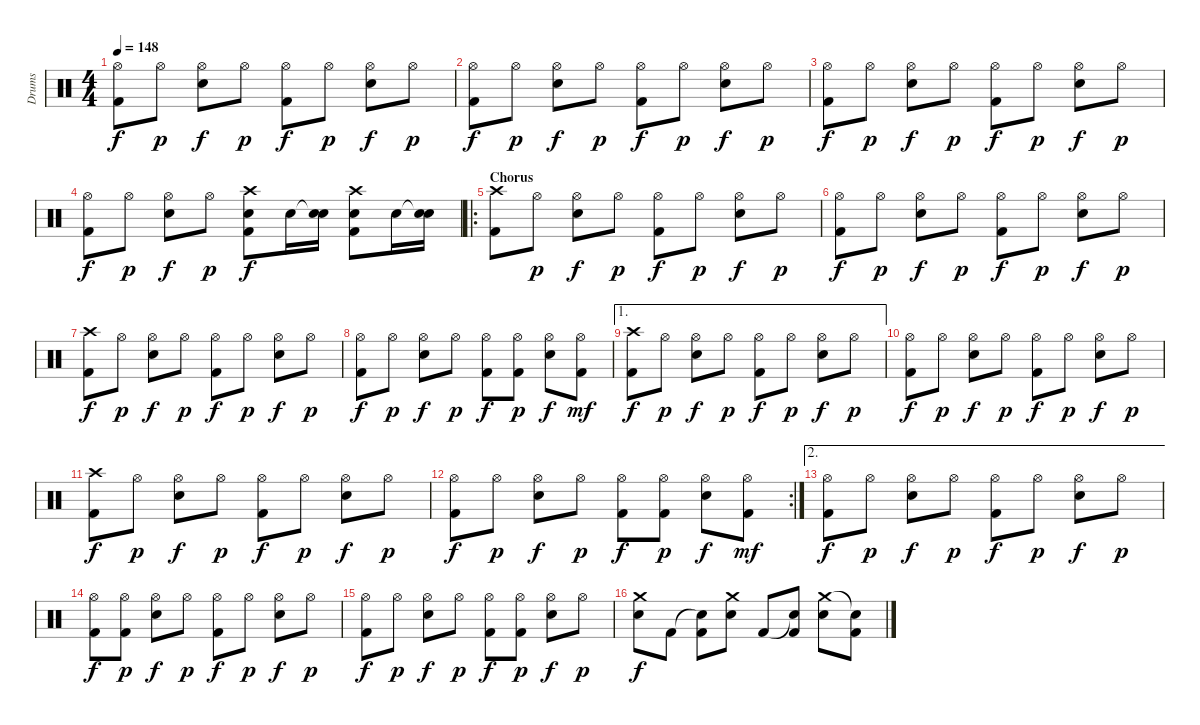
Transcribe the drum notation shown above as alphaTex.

\track ("Drums" "Drums") {instrument percussion}
\staff {score}
\articulation defaults
\ts (4 4)
\tempo 148
\clef neutral
\ks c
("Hi-Hat (open)" "Kick (hit) 2").8{dy f} "Hi-Hat (open)".8{dy p} ("Hi-Hat (open)" "Snare (hit) 2").8{dy f} "Hi-Hat (open)".8{dy p} ("Hi-Hat (open)" "Kick (hit) 2").8{dy f} "Hi-Hat (open)".8{dy p} ("Hi-Hat (open)" "Snare (hit) 2").8{dy f} "Hi-Hat (open)".8{dy p} |
("Hi-Hat (open)" "Kick (hit) 2").8{dy f} "Hi-Hat (open)".8{dy p} ("Hi-Hat (open)" "Snare (hit) 2").8{dy f} "Hi-Hat (open)".8{dy p} ("Hi-Hat (open)" "Kick (hit) 2").8{dy f} "Hi-Hat (open)".8{dy p} ("Hi-Hat (open)" "Snare (hit) 2").8{dy f} "Hi-Hat (open)".8{dy p} |
("Hi-Hat (open)" "Kick (hit) 2").8{dy f} "Hi-Hat (open)".8{dy p} ("Hi-Hat (open)" "Snare (hit) 2").8{dy f} "Hi-Hat (open)".8{dy p} ("Hi-Hat (open)" "Kick (hit) 2").8{dy f} "Hi-Hat (open)".8{dy p} ("Hi-Hat (open)" "Snare (hit) 2").8{dy f} "Hi-Hat (open)".8{dy p} |
("Hi-Hat (open)" "Kick (hit) 2").8{dy f} "Hi-Hat (open)".8{dy p} ("Hi-Hat (open)" "Snare (hit) 2").8{dy f} "Hi-Hat (open)".8{dy p} ("Crash high (hit)" "Snare (hit) 2" "Kick (hit) 2").8{dy f} "Snare (hit) 2".16 ("Snare (hit)"{t} "Snare (hit) 2").16 ("Crash high (hit)" "Snare (hit) 2" "Kick (hit) 2").8 "Snare (hit) 2".16 ("Snare (hit)"{t} "Snare (hit) 2").16 |
\ro
\section ("" "Chorus")
("Crash high (hit)" "Kick (hit) 2").8 "Hi-Hat (open)".8{dy p} ("Hi-Hat (open)" "Snare (hit) 2").8{dy f} "Hi-Hat (open)".8{dy p} ("Hi-Hat (open)" "Kick (hit) 2").8{dy f} "Hi-Hat (open)".8{dy p} ("Hi-Hat (open)" "Snare (hit) 2").8{dy f} "Hi-Hat (open)".8{dy p} |
("Hi-Hat (open)" "Kick (hit) 2").8{dy f} "Hi-Hat (open)".8{dy p} ("Hi-Hat (open)" "Snare (hit) 2").8{dy f} "Hi-Hat (open)".8{dy p} ("Hi-Hat (open)" "Kick (hit) 2").8{dy f} "Hi-Hat (open)".8{dy p} ("Hi-Hat (open)" "Snare (hit) 2").8{dy f} "Hi-Hat (open)".8{dy p} |
("Crash high (hit)" "Kick (hit) 2").8{dy f} "Hi-Hat (open)".8{dy p} ("Hi-Hat (open)" "Snare (hit) 2").8{dy f} "Hi-Hat (open)".8{dy p} ("Hi-Hat (open)" "Kick (hit) 2").8{dy f} "Hi-Hat (open)".8{dy p} ("Hi-Hat (open)" "Snare (hit) 2").8{dy f} "Hi-Hat (open)".8{dy p} |
("Hi-Hat (open)" "Kick (hit) 2").8{dy f} "Hi-Hat (open)".8{dy p} ("Hi-Hat (open)" "Snare (hit) 2").8{dy f} "Hi-Hat (open)".8{dy p} ("Hi-Hat (open)" "Kick (hit) 2").8{dy f} ("Hi-Hat (open)" "Kick (hit) 2").8{dy p} ("Hi-Hat (open)" "Snare (hit) 2").8{dy f} ("Hi-Hat (open)" "Kick (hit) 2").8{dy mf} |
\ae 1
("Crash high (hit)" "Kick (hit) 2").8{dy f} "Hi-Hat (open)".8{dy p} ("Hi-Hat (open)" "Snare (hit) 2").8{dy f} "Hi-Hat (open)".8{dy p} ("Hi-Hat (open)" "Kick (hit) 2").8{dy f} "Hi-Hat (open)".8{dy p} ("Hi-Hat (open)" "Snare (hit) 2").8{dy f} "Hi-Hat (open)".8{dy p} |
("Hi-Hat (open)" "Kick (hit) 2").8{dy f} "Hi-Hat (open)".8{dy p} ("Hi-Hat (open)" "Snare (hit) 2").8{dy f} "Hi-Hat (open)".8{dy p} ("Hi-Hat (open)" "Kick (hit) 2").8{dy f} "Hi-Hat (open)".8{dy p} ("Hi-Hat (open)" "Snare (hit) 2").8{dy f} "Hi-Hat (open)".8{dy p} |
("Crash high (hit)" "Kick (hit) 2").8{dy f} "Hi-Hat (open)".8{dy p} ("Hi-Hat (open)" "Snare (hit) 2").8{dy f} "Hi-Hat (open)".8{dy p} ("Hi-Hat (open)" "Kick (hit) 2").8{dy f} "Hi-Hat (open)".8{dy p} ("Hi-Hat (open)" "Snare (hit) 2").8{dy f} "Hi-Hat (open)".8{dy p} |
\rc 2
("Hi-Hat (open)" "Kick (hit) 2").8{dy f} "Hi-Hat (open)".8{dy p} ("Hi-Hat (open)" "Snare (hit) 2").8{dy f} "Hi-Hat (open)".8{dy p} ("Hi-Hat (open)" "Kick (hit) 2").8{dy f} ("Hi-Hat (open)" "Kick (hit) 2").8{dy p} ("Hi-Hat (open)" "Snare (hit) 2").8{dy f} ("Hi-Hat (open)" "Kick (hit) 2").8{dy mf} |
\ae 2
("Hi-Hat (open)" "Kick (hit) 2").8{dy f} "Hi-Hat (open)".8{dy p} ("Hi-Hat (open)" "Snare (hit) 2").8{dy f} "Hi-Hat (open)".8{dy p} ("Hi-Hat (open)" "Kick (hit) 2").8{dy f} "Hi-Hat (open)".8{dy p} ("Hi-Hat (open)" "Snare (hit) 2").8{dy f} "Hi-Hat (open)".8{dy p} |
("Hi-Hat (open)" "Kick (hit) 2").8{dy f} ("Hi-Hat (open)" "Kick (hit) 2").8{dy p} ("Hi-Hat (open)" "Snare (hit) 2").8{dy f} "Hi-Hat (open)".8{dy p} ("Hi-Hat (open)" "Kick (hit) 2").8{dy f} "Hi-Hat (open)".8{dy p} ("Hi-Hat (open)" "Snare (hit) 2").8{dy f} "Hi-Hat (open)".8{dy p} |
("Hi-Hat (open)" "Kick (hit) 2").8{dy f} "Hi-Hat (open)".8{dy p} ("Hi-Hat (open)" "Snare (hit) 2").8{dy f} "Hi-Hat (open)".8{dy p} ("Hi-Hat (open)" "Kick (hit) 2").8{dy f} ("Hi-Hat (open)" "Kick (hit) 2").8{dy p} ("Hi-Hat (open)" "Snare (hit) 2").8{dy f} "Hi-Hat (open)".8{dy p} |
("Crash medium (hit)" "Snare (hit) 2").8{dy f} "Kick (hit) 2".8 ("Snare (hit)"{t} "Kick (hit) 2").8 ("Crash medium (hit)" "Snare (hit) 2").8 "Kick (hit) 2".8 ("Snare (hit)"{t} "Kick (hit) 2").8 ("Crash medium (hit)" "Snare (hit) 2").8 ("Snare (hit)"{t} "Kick (hit) 2").8
